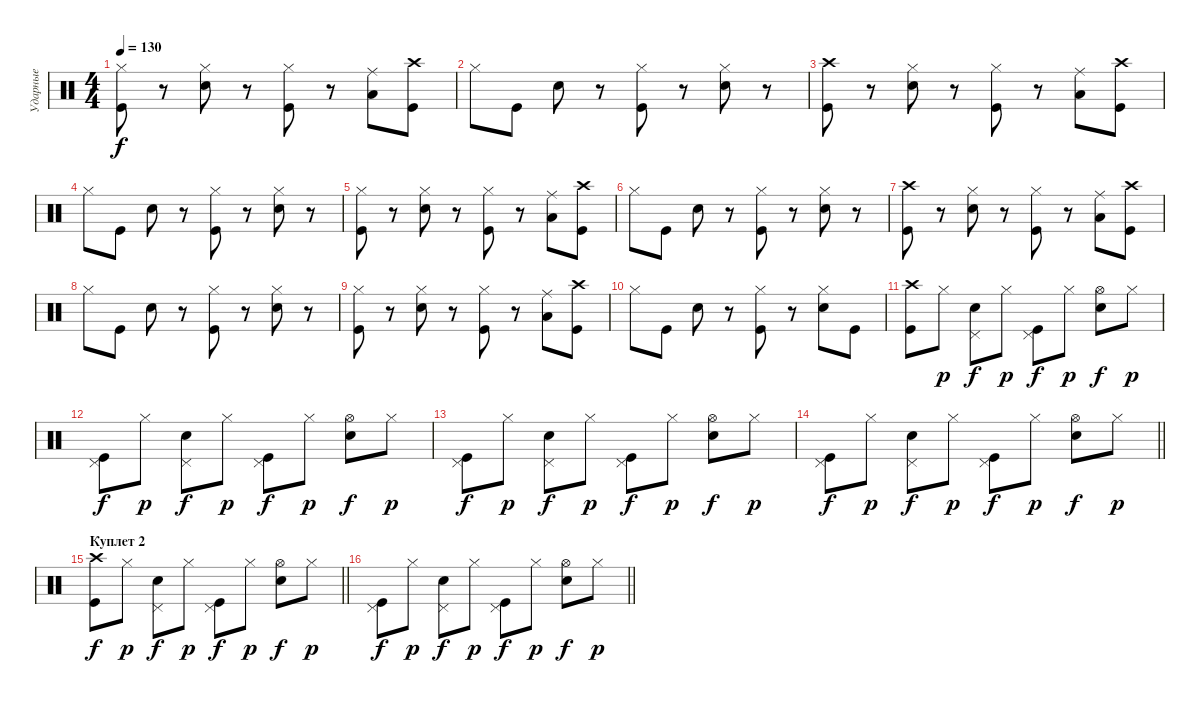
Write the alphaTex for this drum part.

\track ("Ударные" "Ударные") {instrument percussion}
\staff {score}
\articulation defaults
\ts (4 4)
\tempo 130
\clef neutral
\ks c
("Hi-Hat (closed)" "Kick (hit)").8{dy f} r.8 ("Hi-Hat (closed)" "Snare (hit) 2").8 r.8 ("Hi-Hat (closed)" "Kick (hit)").8 r.8 ("Ride (middle)" "Low Tom (hit)").8 ("Crash high (hit)" "Kick (hit)").8 |
"Hi-Hat (closed)".8 "Kick (hit)".8 "Snare (hit) 2".8 r.8 ("Hi-Hat (closed)" "Kick (hit)").8 r.8 ("Hi-Hat (closed)" "Snare (hit) 2").8 r.8 |
("Crash high (hit)" "Kick (hit)").8 r.8 ("Hi-Hat (closed)" "Snare (hit) 2").8 r.8 ("Hi-Hat (closed)" "Kick (hit)").8 r.8 ("Ride (middle)" "Low Tom (hit)").8 ("Crash high (hit)" "Kick (hit)").8 |
"Hi-Hat (closed)".8 "Kick (hit)".8 "Snare (hit) 2".8 r.8 ("Hi-Hat (closed)" "Kick (hit)").8 r.8 ("Hi-Hat (closed)" "Snare (hit) 2").8 r.8 |
("Hi-Hat (closed)" "Kick (hit)").8 r.8 ("Hi-Hat (closed)" "Snare (hit) 2").8 r.8 ("Hi-Hat (closed)" "Kick (hit)").8 r.8 ("Ride (middle)" "Low Tom (hit)").8 ("Crash high (hit)" "Kick (hit)").8 |
"Hi-Hat (closed)".8 "Kick (hit)".8 "Snare (hit) 2".8 r.8 ("Hi-Hat (closed)" "Kick (hit)").8 r.8 ("Hi-Hat (closed)" "Snare (hit) 2").8 r.8 |
("Crash high (hit)" "Kick (hit)").8 r.8 ("Hi-Hat (closed)" "Snare (hit) 2").8 r.8 ("Hi-Hat (closed)" "Kick (hit)").8 r.8 ("Ride (middle)" "Low Tom (hit)").8 ("Crash high (hit)" "Kick (hit)").8 |
"Hi-Hat (closed)".8 "Kick (hit)".8 "Snare (hit) 2".8 r.8 ("Hi-Hat (closed)" "Kick (hit)").8 r.8 ("Hi-Hat (closed)" "Snare (hit) 2").8 r.8 |
("Hi-Hat (closed)" "Kick (hit)").8 r.8 ("Hi-Hat (closed)" "Snare (hit) 2").8 r.8 ("Hi-Hat (closed)" "Kick (hit)").8 r.8 ("Ride (middle)" "Low Tom (hit)").8 ("Crash high (hit)" "Kick (hit)").8 |
"Hi-Hat (closed)".8 "Kick (hit)".8 "Snare (hit) 2".8 r.8 ("Hi-Hat (closed)" "Kick (hit)").8 r.8 ("Hi-Hat (closed)" "Snare (hit) 2").8 "Kick (hit)".8 |
("Crash high (hit)" "Kick (hit)").8 "Hi-Hat (closed)".8{dy p} ("Pedal Hi-Hat (hit)" "Snare (hit) 2").8{dy f} "Hi-Hat (closed)".8{dy p} ("Pedal Hi-Hat (hit)" "Kick (hit)").8{dy f} "Hi-Hat (closed)".8{dy p} ("Hi-Hat (open)" "Snare (hit) 2").8{dy f} "Hi-Hat (closed)".8{dy p} |
("Pedal Hi-Hat (hit)" "Kick (hit)").8{dy f} "Hi-Hat (closed)".8{dy p} ("Pedal Hi-Hat (hit)" "Snare (hit) 2").8{dy f} "Hi-Hat (closed)".8{dy p} ("Pedal Hi-Hat (hit)" "Kick (hit)").8{dy f} "Hi-Hat (closed)".8{dy p} ("Hi-Hat (open)" "Snare (hit) 2").8{dy f} "Hi-Hat (closed)".8{dy p} |
("Pedal Hi-Hat (hit)" "Kick (hit)").8{dy f} "Hi-Hat (closed)".8{dy p} ("Pedal Hi-Hat (hit)" "Snare (hit) 2").8{dy f} "Hi-Hat (closed)".8{dy p} ("Pedal Hi-Hat (hit)" "Kick (hit)").8{dy f} "Hi-Hat (closed)".8{dy p} ("Hi-Hat (open)" "Snare (hit) 2").8{dy f} "Hi-Hat (closed)".8{dy p} |
\barLineRight lightlight
("Pedal Hi-Hat (hit)" "Kick (hit)").8{dy f} "Hi-Hat (closed)".8{dy p} ("Pedal Hi-Hat (hit)" "Snare (hit) 2").8{dy f} "Hi-Hat (closed)".8{dy p} ("Pedal Hi-Hat (hit)" "Kick (hit)").8{dy f} "Hi-Hat (closed)".8{dy p} ("Hi-Hat (open)" "Snare (hit) 2").8{dy f} "Hi-Hat (closed)".8{dy p} |
\section ("" "Куплет 2")
\barLineRight lightlight
("Crash high (hit)" "Kick (hit)").8{dy f} "Hi-Hat (closed)".8{dy p} ("Pedal Hi-Hat (hit)" "Snare (hit) 2").8{dy f} "Hi-Hat (closed)".8{dy p} ("Pedal Hi-Hat (hit)" "Kick (hit)").8{dy f} "Hi-Hat (closed)".8{dy p} ("Hi-Hat (open)" "Snare (hit) 2").8{dy f} "Hi-Hat (closed)".8{dy p} |
\barLineRight lightlight
("Pedal Hi-Hat (hit)" "Kick (hit)").8{dy f} "Hi-Hat (closed)".8{dy p} ("Pedal Hi-Hat (hit)" "Snare (hit) 2").8{dy f} "Hi-Hat (closed)".8{dy p} ("Pedal Hi-Hat (hit)" "Kick (hit)").8{dy f} "Hi-Hat (closed)".8{dy p} ("Hi-Hat (open)" "Snare (hit) 2").8{dy f} "Hi-Hat (closed)".8{dy p}
